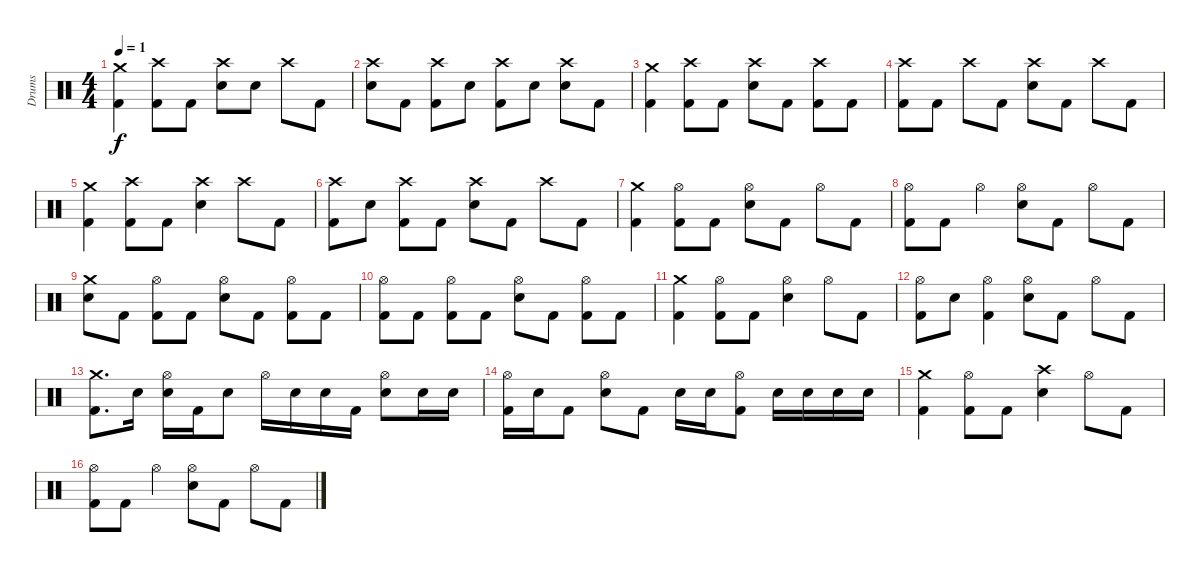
\track ("Drums" "Drums") {instrument percussion}
\staff {score}
\articulation defaults
\ts (4 4)
\tempo 1
\clef neutral
\ks c
("Kick (hit) 2" "Crash medium (hit)").4{dy f} ("Crash high (hit)" "Kick (hit) 2").8 "Kick (hit) 2".8 ("Snare (hit) 2" "Crash high (hit)").8 "Snare (hit) 2".8 "Crash high (hit)".8 "Kick (hit) 2".8 |
("Crash high (hit)" "Snare (hit) 2").8 "Kick (hit) 2".8 ("Crash high (hit)" "Kick (hit) 2").8 "Snare (hit) 2".8 ("Crash high (hit)" "Kick (hit) 2").8 "Snare (hit) 2".8 ("Crash high (hit)" "Snare (hit) 2").8 "Kick (hit) 2".8 |
("Kick (hit) 2" "Crash medium (hit)").4 ("Crash high (hit)" "Kick (hit) 2").8 "Kick (hit) 2".8 ("Snare (hit) 2" "Crash high (hit)").8 "Kick (hit) 2".8 ("Crash high (hit)" "Kick (hit) 2").8 "Kick (hit) 2".8 |
("Crash high (hit)" "Kick (hit) 2").8 "Kick (hit) 2".8 "Crash high (hit)".8 "Kick (hit) 2".8 ("Snare (hit) 2" "Crash high (hit)").8 "Kick (hit) 2".8 "Crash high (hit)".8 "Kick (hit) 2".8 |
("Kick (hit) 2" "Crash medium (hit)").4 ("Crash high (hit)" "Kick (hit) 2").8 "Kick (hit) 2".8 ("Snare (hit) 2" "Crash high (hit)").4 "Crash high (hit)".8 "Kick (hit) 2".8 |
("Crash high (hit)" "Kick (hit) 2").8 "Snare (hit) 2".8 ("Kick (hit) 2" "Crash high (hit)").8 "Kick (hit) 2".8 ("Crash high (hit)" "Snare (hit) 2").8 "Kick (hit) 2".8 "Crash high (hit)".8 "Kick (hit) 2".8 |
("Kick (hit) 2" "Crash medium (hit)").4 ("Hi-Hat (open)" "Kick (hit) 2").8 "Kick (hit) 2".8 ("Snare (hit) 2" "Hi-Hat (open)").8 "Kick (hit) 2".8 "Hi-Hat (open)".8 "Kick (hit) 2".8 |
("Kick (hit) 2" "Hi-Hat (open)").8 "Kick (hit) 2".8 "Hi-Hat (open)".4 ("Snare (hit) 2" "Hi-Hat (open)").8 "Kick (hit) 2".8 "Hi-Hat (open)".8 "Kick (hit) 2".8 |
("Crash medium (hit)" "Snare (hit) 2").8 "Kick (hit) 2".8 ("Hi-Hat (open)" "Kick (hit) 2").8 "Kick (hit) 2".8 ("Snare (hit) 2" "Hi-Hat (open)").8 "Kick (hit) 2".8 ("Hi-Hat (open)" "Kick (hit) 2").8 "Kick (hit) 2".8 |
("Hi-Hat (open)" "Kick (hit) 2").8 "Kick (hit) 2".8 ("Hi-Hat (open)" "Kick (hit) 2").8 "Kick (hit) 2".8 ("Snare (hit) 2" "Hi-Hat (open)").8 "Kick (hit) 2".8 ("Hi-Hat (open)" "Kick (hit) 2").8 "Kick (hit) 2".8 |
("Kick (hit) 2" "Crash medium (hit)").4 ("Hi-Hat (open)" "Kick (hit) 2").8 "Kick (hit) 2".8 ("Snare (hit) 2" "Hi-Hat (open)").4 "Hi-Hat (open)".8 "Kick (hit) 2".8 |
("Kick (hit) 2" "Hi-Hat (open)").8 "Snare (hit) 2".8 ("Hi-Hat (open)" "Kick (hit) 2").4 ("Snare (hit) 2" "Hi-Hat (open)").8 "Kick (hit) 2".8 "Hi-Hat (open)".8 "Kick (hit) 2".8 |
("Kick (hit) 2" "Crash medium (hit)").8{d} "Snare (hit) 2".16 ("Hi-Hat (open)" "Snare (hit) 2").16 "Kick (hit) 2".16 "Snare (hit) 2".8 "Hi-Hat (open)".16 "Snare (hit) 2".16 "Snare (hit) 2".16 "Kick (hit) 2".16 ("Snare (hit) 2" "Hi-Hat (open)").8 "Snare (hit) 2".16 "Snare (hit) 2".16 |
("Hi-Hat (open)" "Kick (hit) 2").16 "Snare (hit) 2".16 "Kick (hit) 2".8 ("Hi-Hat (open)" "Snare (hit) 2").8 "Kick (hit) 2".8 "Snare (hit) 2".16 "Snare (hit) 2".16 ("Kick (hit) 2" "Hi-Hat (open)").8 "Snare (hit) 2".16 "Snare (hit) 2".16 "Snare (hit) 2".16 "Snare (hit) 2".16 |
("Kick (hit) 2" "Crash medium (hit)").4 ("Hi-Hat (open)" "Kick (hit) 2").8 "Kick (hit) 2".8 ("Snare (hit) 2" "Crash high (hit)").4 "Hi-Hat (open)".8 "Kick (hit) 2".8 |
("Kick (hit) 2" "Hi-Hat (open)").8 "Kick (hit) 2".8 "Hi-Hat (open)".4 ("Snare (hit) 2" "Hi-Hat (open)").8 "Kick (hit) 2".8 "Hi-Hat (open)".8 "Kick (hit) 2".8
